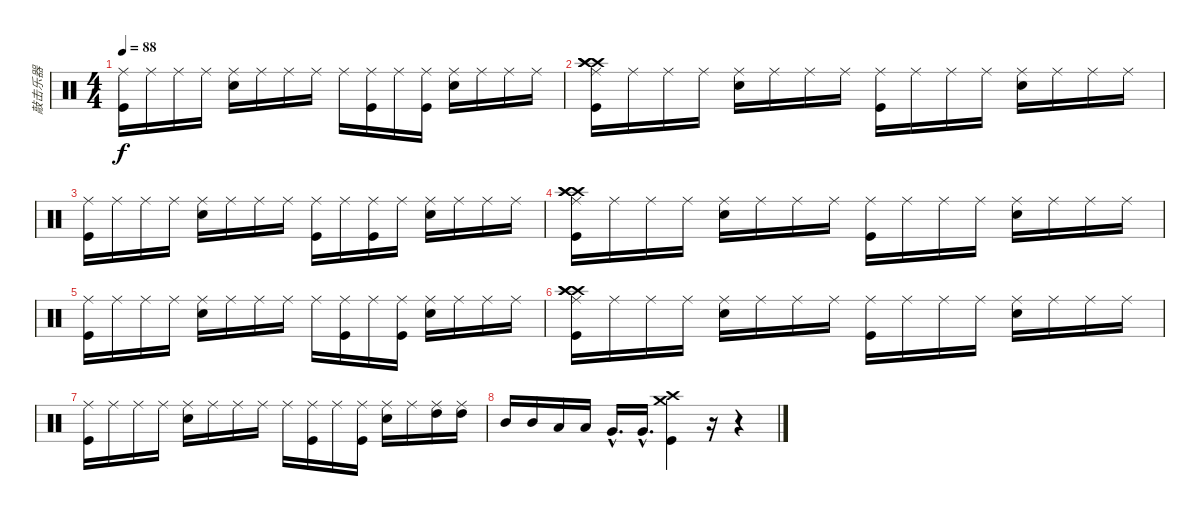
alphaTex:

\track ("敲击乐器" "敲击乐器") {instrument percussion}
\staff {score}
\articulation defaults
\ts (4 4)
\tempo 88
\clef neutral
\ks c
("Ride (middle)" "Kick (hit)").16{dy f} "Ride (middle)".16 "Ride (middle)".16 "Ride (middle)".16 ("Ride (middle)" "Electric Snare (hit)").16 "Ride (middle)".16 "Ride (middle)".16 "Ride (middle)".16 "Ride (middle)".16 ("Ride (middle)" "Kick (hit)").16 "Ride (middle)".16 ("Ride (middle)" "Kick (hit)").16 ("Ride (middle)" "Electric Snare (hit)").16 "Ride (middle)".16 "Ride (middle)".16 "Ride (middle)".16 |
("Ride (middle)" "Kick (hit)" "Crash high (hit)" "Crash high (hit)" "Crash high (hit)").16 "Ride (middle)".16 "Ride (middle)".16 "Ride (middle)".16 ("Ride (middle)" "Electric Snare (hit)").16 "Ride (middle)".16 "Ride (middle)".16 "Ride (middle)".16 ("Ride (middle)" "Kick (hit)").16 "Ride (middle)".16 "Ride (middle)".16 "Ride (middle)".16 ("Ride (middle)" "Electric Snare (hit)").16 "Ride (middle)".16 "Ride (middle)".16 "Ride (middle)".16 |
("Ride (middle)" "Kick (hit)").16 "Ride (middle)".16 "Ride (middle)".16 "Ride (middle)".16 ("Ride (middle)" "Electric Snare (hit)").16 "Ride (middle)".16 "Ride (middle)".16 "Ride (middle)".16 ("Ride (middle)" "Kick (hit)").16 "Ride (middle)".16 ("Ride (middle)" "Kick (hit)").16 "Ride (middle)".16 ("Ride (middle)" "Electric Snare (hit)").16 "Ride (middle)".16 "Ride (middle)".16 "Ride (middle)".16 |
("Ride (middle)" "Kick (hit)" "Crash high (hit)" "Crash high (hit)" "Crash high (hit)").16 "Ride (middle)".16 "Ride (middle)".16 "Ride (middle)".16 ("Ride (middle)" "Electric Snare (hit)").16 "Ride (middle)".16 "Ride (middle)".16 "Ride (middle)".16 ("Ride (middle)" "Kick (hit)").16 "Ride (middle)".16 "Ride (middle)".16 "Ride (middle)".16 ("Ride (middle)" "Electric Snare (hit)").16 "Ride (middle)".16 "Ride (middle)".16 "Ride (middle)".16 |
("Ride (middle)" "Kick (hit)").16 "Ride (middle)".16 "Ride (middle)".16 "Ride (middle)".16 ("Ride (middle)" "Electric Snare (hit)").16 "Ride (middle)".16 "Ride (middle)".16 "Ride (middle)".16 "Ride (middle)".16 ("Ride (middle)" "Kick (hit)").16 "Ride (middle)".16 ("Ride (middle)" "Kick (hit)").16 ("Ride (middle)" "Electric Snare (hit)").16 "Ride (middle)".16 "Ride (middle)".16 "Ride (middle)".16 |
("Ride (middle)" "Kick (hit)" "Crash high (hit)" "Crash high (hit)" "Crash high (hit)").16 "Ride (middle)".16 "Ride (middle)".16 "Ride (middle)".16 ("Ride (middle)" "Electric Snare (hit)").16 "Ride (middle)".16 "Ride (middle)".16 "Ride (middle)".16 ("Ride (middle)" "Kick (hit)").16 "Ride (middle)".16 "Ride (middle)".16 "Ride (middle)".16 ("Ride (middle)" "Electric Snare (hit)").16 "Ride (middle)".16 "Ride (middle)".16 "Ride (middle)".16 |
("Ride (middle)" "Kick (hit)").16 "Ride (middle)".16 "Ride (middle)".16 "Ride (middle)".16 ("Ride (middle)" "Electric Snare (hit)").16 "Ride (middle)".16 "Ride (middle)".16 "Ride (middle)".16 "Ride (middle)".16 ("Ride (middle)" "Kick (hit)").16 "Ride (middle)".16 ("Ride (middle)" "Kick (hit)").16 ("Ride (middle)" "Electric Snare (hit)").16 "Ride (middle)".16 ("High Tom (hit)" "Ride (middle)").16 ("High Tom (hit)" "Ride (middle)").16 |
"Mid Tom (hit)".16 "Mid Tom (hit)".16 "Low Tom (hit)".16 "Low Tom (hit)".16 "Very Low Tom (hit)"{hac}.16{d} "Very Low Tom (hit)"{hac}.16{d} ("Kick (hit)" "Crash high (hit)" "Crash medium (hit)").4 r.16 r.4
